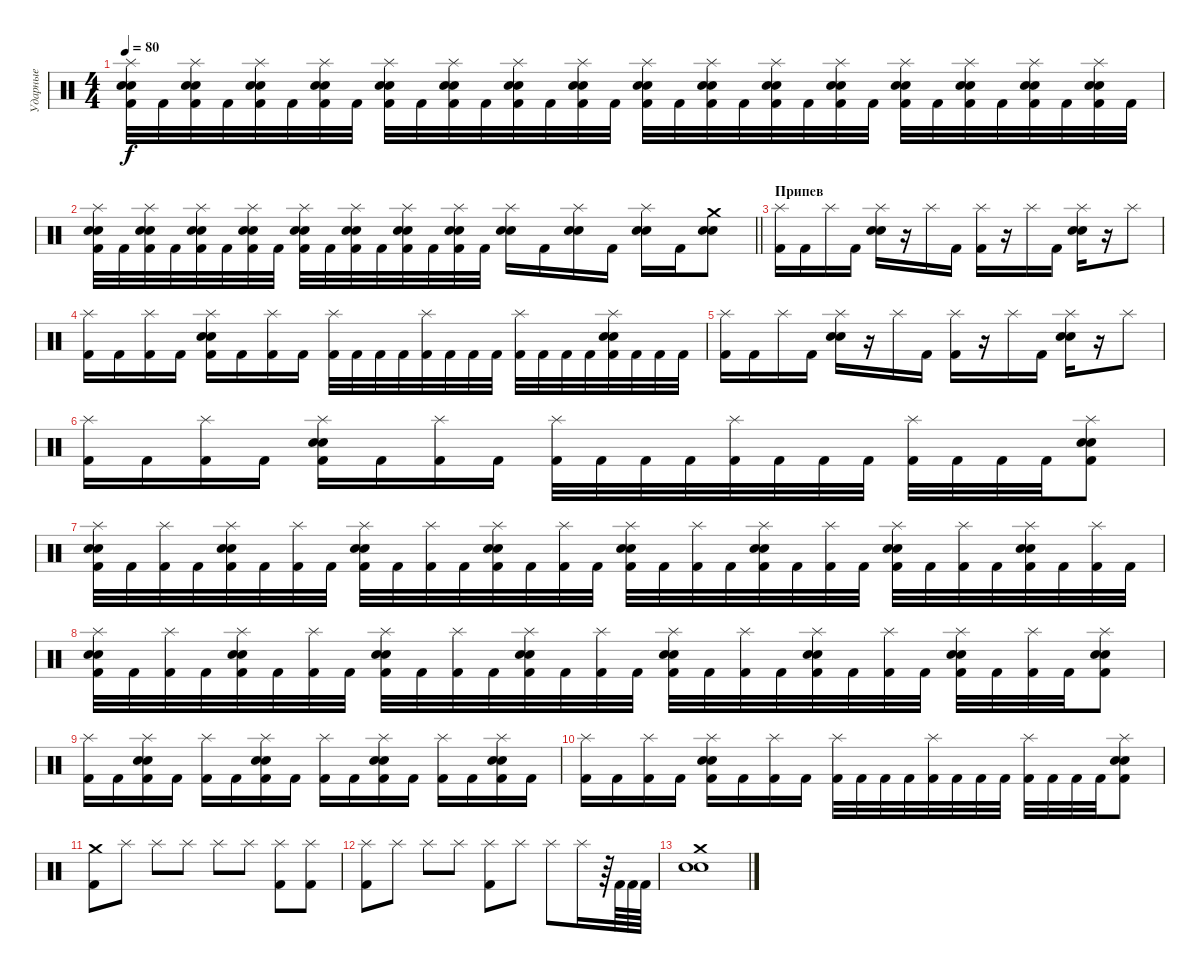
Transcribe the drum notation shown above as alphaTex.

\track ("Ударные" "Ударные") {instrument percussion}
\staff {score}
\articulation defaults
\ts (4 4)
\tempo 80
\clef neutral
\ks c
("Splash (hit)" "Electric Snare (hit)" "Snare (hit) 2" "Kick (hit) 2").32{dy f} "Kick (hit) 2".32 ("Splash (hit)" "Electric Snare (hit)" "Snare (hit) 2" "Kick (hit) 2").32 "Kick (hit) 2".32 ("Splash (hit)" "Electric Snare (hit)" "Snare (hit) 2" "Kick (hit) 2").32 "Kick (hit) 2".32 ("Splash (hit)" "Electric Snare (hit)" "Snare (hit) 2" "Kick (hit) 2").32 "Kick (hit) 2".32 ("Splash (hit)" "Electric Snare (hit)" "Snare (hit) 2" "Kick (hit) 2").32 "Kick (hit) 2".32 ("Splash (hit)" "Electric Snare (hit)" "Snare (hit) 2" "Kick (hit) 2").32 "Kick (hit) 2".32 ("Splash (hit)" "Electric Snare (hit)" "Snare (hit) 2" "Kick (hit) 2").32 "Kick (hit) 2".32 ("Splash (hit)" "Electric Snare (hit)" "Snare (hit) 2" "Kick (hit) 2").32 "Kick (hit) 2".32 ("Splash (hit)" "Electric Snare (hit)" "Snare (hit) 2" "Kick (hit) 2").32 "Kick (hit) 2".32 ("Splash (hit)" "Electric Snare (hit)" "Snare (hit) 2" "Kick (hit) 2").32 "Kick (hit) 2".32 ("Splash (hit)" "Electric Snare (hit)" "Snare (hit) 2" "Kick (hit) 2").32 "Kick (hit) 2".32 ("Splash (hit)" "Electric Snare (hit)" "Snare (hit) 2" "Kick (hit) 2").32 "Kick (hit) 2".32 ("Splash (hit)" "Electric Snare (hit)" "Snare (hit) 2" "Kick (hit) 2").32 "Kick (hit) 2".32 ("Splash (hit)" "Electric Snare (hit)" "Snare (hit) 2" "Kick (hit) 2").32 "Kick (hit) 2".32 ("Splash (hit)" "Electric Snare (hit)" "Snare (hit) 2" "Kick (hit) 2").32 "Kick (hit) 2".32 ("Splash (hit)" "Electric Snare (hit)" "Snare (hit) 2" "Kick (hit) 2").32 "Kick (hit) 2".32 |
\barLineRight lightlight
("Splash (hit)" "Electric Snare (hit)" "Snare (hit) 2" "Kick (hit) 2").32 "Kick (hit) 2".32 ("Splash (hit)" "Electric Snare (hit)" "Snare (hit) 2" "Kick (hit) 2").32 "Kick (hit) 2".32 ("Splash (hit)" "Electric Snare (hit)" "Snare (hit) 2" "Kick (hit) 2").32 "Kick (hit) 2".32 ("Splash (hit)" "Electric Snare (hit)" "Snare (hit) 2" "Kick (hit) 2").32 "Kick (hit) 2".32 ("Splash (hit)" "Electric Snare (hit)" "Snare (hit) 2" "Kick (hit) 2").32 "Kick (hit) 2".32 ("Splash (hit)" "Electric Snare (hit)" "Snare (hit) 2" "Kick (hit) 2").32 "Kick (hit) 2".32 ("Splash (hit)" "Electric Snare (hit)" "Snare (hit) 2" "Kick (hit) 2").32 "Kick (hit) 2".32 ("Splash (hit)" "Electric Snare (hit)" "Snare (hit) 2" "Kick (hit) 2").32 "Kick (hit) 2".32 ("Splash (hit)" "Electric Snare (hit)" "Snare (hit) 2").16 "Kick (hit) 2".16 ("Splash (hit)" "Electric Snare (hit)" "Snare (hit) 2").16 "Kick (hit) 2".16 ("Splash (hit)" "Electric Snare (hit)" "Snare (hit) 2").16 "Kick (hit) 2".16 ("Crash medium (hit)" "Electric Snare (hit)" "Snare (hit) 2").8 |
\section ("" "Припев")
("Splash (hit)" "Kick (hit) 2").16 "Kick (hit) 2".16 "Splash (hit)".16 "Kick (hit) 2".16 ("Splash (hit)" "Electric Snare (hit)" "Snare (hit) 2").16 r.16 "Splash (hit)".16 "Kick (hit) 2".16 ("Splash (hit)" "Kick (hit) 2").16 r.16 "Splash (hit)".16 "Kick (hit) 2".16 ("Splash (hit)" "Electric Snare (hit)" "Snare (hit) 2").16 r.16 "Splash (hit)".8 |
("Splash (hit)" "Kick (hit) 2").16 "Kick (hit) 2".16 ("Splash (hit)" "Kick (hit) 2").16 "Kick (hit) 2".16 ("Splash (hit)" "Electric Snare (hit)" "Snare (hit) 2" "Kick (hit) 2").16 "Kick (hit) 2".16 ("Splash (hit)" "Kick (hit) 2").16 "Kick (hit) 2".16 ("Splash (hit)" "Kick (hit) 2").32 "Kick (hit) 2".32 "Kick (hit) 2".32 "Kick (hit) 2".32 ("Splash (hit)" "Kick (hit) 2").32 "Kick (hit) 2".32 "Kick (hit) 2".32 "Kick (hit) 2".32 ("Splash (hit)" "Kick (hit) 2").32 "Kick (hit) 2".32 "Kick (hit) 2".32 "Kick (hit) 2".32 ("Splash (hit)" "Electric Snare (hit)" "Snare (hit) 2" "Kick (hit) 2").32 "Kick (hit) 2".32 "Kick (hit) 2".32 "Kick (hit) 2".32 |
("Splash (hit)" "Kick (hit) 2").16 "Kick (hit) 2".16 "Splash (hit)".16 "Kick (hit) 2".16 ("Splash (hit)" "Electric Snare (hit)" "Snare (hit) 2").16 r.16 "Splash (hit)".16 "Kick (hit) 2".16 ("Splash (hit)" "Kick (hit) 2").16 r.16 "Splash (hit)".16 "Kick (hit) 2".16 ("Splash (hit)" "Electric Snare (hit)" "Snare (hit) 2").16 r.16 "Splash (hit)".8 |
("Splash (hit)" "Kick (hit) 2").16 "Kick (hit) 2".16 ("Splash (hit)" "Kick (hit) 2").16 "Kick (hit) 2".16 ("Splash (hit)" "Electric Snare (hit)" "Snare (hit) 2" "Kick (hit) 2").16 "Kick (hit) 2".16 ("Splash (hit)" "Kick (hit) 2").16 "Kick (hit) 2".16 ("Splash (hit)" "Kick (hit) 2").32 "Kick (hit) 2".32 "Kick (hit) 2".32 "Kick (hit) 2".32 ("Splash (hit)" "Kick (hit) 2").32 "Kick (hit) 2".32 "Kick (hit) 2".32 "Kick (hit) 2".32 ("Splash (hit)" "Kick (hit) 2").32 "Kick (hit) 2".32 "Kick (hit) 2".32 "Kick (hit) 2".32 ("Splash (hit)" "Electric Snare (hit)" "Snare (hit) 2" "Kick (hit) 2").8 |
("Splash (hit)" "Electric Snare (hit)" "Snare (hit) 2" "Kick (hit) 2").32 "Kick (hit) 2".32 ("Splash (hit)" "Kick (hit) 2").32 "Kick (hit) 2".32 ("Splash (hit)" "Electric Snare (hit)" "Snare (hit) 2" "Kick (hit) 2").32 "Kick (hit) 2".32 ("Splash (hit)" "Kick (hit) 2").32 "Kick (hit) 2".32 ("Splash (hit)" "Electric Snare (hit)" "Snare (hit) 2" "Kick (hit) 2").32 "Kick (hit) 2".32 ("Splash (hit)" "Kick (hit) 2").32 "Kick (hit) 2".32 ("Splash (hit)" "Electric Snare (hit)" "Snare (hit) 2" "Kick (hit) 2").32 "Kick (hit) 2".32 ("Splash (hit)" "Kick (hit) 2").32 "Kick (hit) 2".32 ("Splash (hit)" "Electric Snare (hit)" "Snare (hit) 2" "Kick (hit) 2").32 "Kick (hit) 2".32 ("Splash (hit)" "Kick (hit) 2").32 "Kick (hit) 2".32 ("Splash (hit)" "Electric Snare (hit)" "Snare (hit) 2" "Kick (hit) 2").32 "Kick (hit) 2".32 ("Splash (hit)" "Kick (hit) 2").32 "Kick (hit) 2".32 ("Splash (hit)" "Electric Snare (hit)" "Snare (hit) 2" "Kick (hit) 2").32 "Kick (hit) 2".32 ("Splash (hit)" "Kick (hit) 2").32 "Kick (hit) 2".32 ("Splash (hit)" "Electric Snare (hit)" "Snare (hit) 2" "Kick (hit) 2").32 "Kick (hit) 2".32 ("Splash (hit)" "Kick (hit) 2").32 "Kick (hit) 2".32 |
("Splash (hit)" "Electric Snare (hit)" "Snare (hit) 2" "Kick (hit) 2").32 "Kick (hit) 2".32 ("Splash (hit)" "Kick (hit) 2").32 "Kick (hit) 2".32 ("Splash (hit)" "Electric Snare (hit)" "Snare (hit) 2" "Kick (hit) 2").32 "Kick (hit) 2".32 ("Splash (hit)" "Kick (hit) 2").32 "Kick (hit) 2".32 ("Splash (hit)" "Electric Snare (hit)" "Snare (hit) 2" "Kick (hit) 2").32 "Kick (hit) 2".32 ("Splash (hit)" "Kick (hit) 2").32 "Kick (hit) 2".32 ("Splash (hit)" "Electric Snare (hit)" "Snare (hit) 2" "Kick (hit) 2").32 "Kick (hit) 2".32 ("Splash (hit)" "Kick (hit) 2").32 "Kick (hit) 2".32 ("Splash (hit)" "Electric Snare (hit)" "Snare (hit) 2" "Kick (hit) 2").32 "Kick (hit) 2".32 ("Splash (hit)" "Kick (hit) 2").32 "Kick (hit) 2".32 ("Splash (hit)" "Electric Snare (hit)" "Snare (hit) 2" "Kick (hit) 2").32 "Kick (hit) 2".32 ("Splash (hit)" "Kick (hit) 2").32 "Kick (hit) 2".32 ("Splash (hit)" "Electric Snare (hit)" "Snare (hit) 2" "Kick (hit) 2").32 "Kick (hit) 2".32 ("Splash (hit)" "Kick (hit) 2").32 "Kick (hit) 2".32 ("Splash (hit)" "Electric Snare (hit)" "Snare (hit) 2" "Kick (hit) 2").8 |
("Splash (hit)" "Kick (hit) 2").16 "Kick (hit) 2".16 ("Splash (hit)" "Electric Snare (hit)" "Snare (hit) 2" "Kick (hit) 2").16 "Kick (hit) 2".16 ("Splash (hit)" "Kick (hit) 2").16 "Kick (hit) 2".16 ("Splash (hit)" "Electric Snare (hit)" "Snare (hit) 2" "Kick (hit) 2").16 "Kick (hit) 2".16 ("Splash (hit)" "Kick (hit) 2").16 "Kick (hit) 2".16 ("Splash (hit)" "Electric Snare (hit)" "Snare (hit) 2" "Kick (hit) 2").16 "Kick (hit) 2".16 ("Splash (hit)" "Kick (hit) 2").16 "Kick (hit) 2".16 ("Splash (hit)" "Electric Snare (hit)" "Snare (hit) 2" "Kick (hit) 2").16 "Kick (hit) 2".16 |
("Splash (hit)" "Kick (hit) 2").16 "Kick (hit) 2".16 ("Splash (hit)" "Kick (hit) 2").16 "Kick (hit) 2".16 ("Splash (hit)" "Electric Snare (hit)" "Snare (hit) 2" "Kick (hit) 2").16 "Kick (hit) 2".16 ("Splash (hit)" "Kick (hit) 2").16 "Kick (hit) 2".16 ("Splash (hit)" "Kick (hit) 2").32 "Kick (hit) 2".32 "Kick (hit) 2".32 "Kick (hit) 2".32 ("Splash (hit)" "Kick (hit) 2").32 "Kick (hit) 2".32 "Kick (hit) 2".32 "Kick (hit) 2".32 ("Splash (hit)" "Kick (hit) 2").32 "Kick (hit) 2".32 "Kick (hit) 2".32 "Kick (hit) 2".32 ("Splash (hit)" "Electric Snare (hit)" "Snare (hit) 2" "Kick (hit) 2").8 |
("Crash medium (hit)" "Kick (hit) 2").8 "Splash (hit)".8 "Splash (hit)".8 "Splash (hit)".8 "Splash (hit)".8 "Splash (hit)".8 ("Splash (hit)" "Kick (hit) 2").8 ("Splash (hit)" "Kick (hit) 2").8 |
("Splash (hit)" "Kick (hit) 2").8 "Splash (hit)".8 "Splash (hit)".8 "Splash (hit)".8 ("Splash (hit)" "Kick (hit) 2").8 "Splash (hit)".8 "Splash (hit)".8 "Splash (hit)".16 r.64 "Kick (hit) 2".64 "Kick (hit) 2".64 "Kick (hit) 2".64 |
("Crash medium (hit)" "Electric Snare (hit)" "Snare (hit) 2").1
